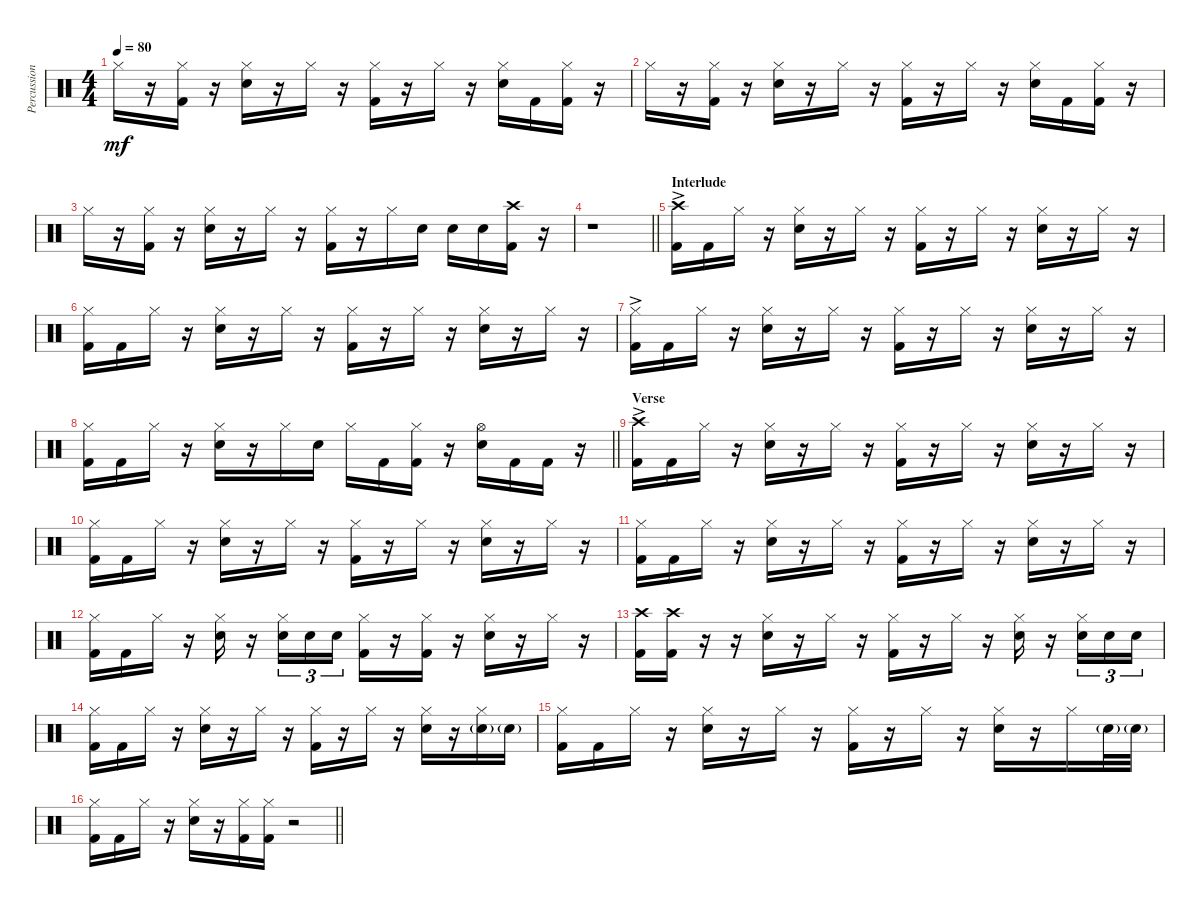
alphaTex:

\track ("Percussion" "Percussion") {instrument percussion}
\staff {score}
\articulation defaults
\ts (4 4)
\tempo 80
\clef neutral
\ks c "Hi-Hat (closed)".16{dy mf}
r.16 ("Hi-Hat (closed)" "Kick (hit) 2").16 r.16 ("Hi-Hat (closed)" "Snare (hit) 2").16 r.16 "Hi-Hat (closed)".16 r.16 ("Hi-Hat (closed)" "Kick (hit) 2").16 r.16 "Hi-Hat (closed)".16 r.16 ("Hi-Hat (closed)" "Snare (hit) 2").16 "Kick (hit) 2".16 ("Hi-Hat (closed)" "Kick (hit) 2").16 r.16 |
"Hi-Hat (closed)".16 r.16 ("Hi-Hat (closed)" "Kick (hit) 2").16 r.16 ("Hi-Hat (closed)" "Snare (hit) 2").16 r.16 "Hi-Hat (closed)".16 r.16 ("Hi-Hat (closed)" "Kick (hit) 2").16 r.16 "Hi-Hat (closed)".16 r.16 ("Hi-Hat (closed)" "Snare (hit) 2").16 "Kick (hit) 2".16 ("Hi-Hat (closed)" "Kick (hit) 2").16 r.16 |
"Hi-Hat (closed)".16 r.16 ("Hi-Hat (closed)" "Kick (hit) 2").16 r.16 ("Hi-Hat (closed)" "Snare (hit) 2").16 r.16 "Hi-Hat (closed)".16 r.16 ("Hi-Hat (closed)" "Kick (hit) 2").16 r.16 "Hi-Hat (closed)".16 "Snare (hit) 2".16 "Snare (hit) 2".16 "Snare (hit) 2".16 ("Crash high (hit)" "Kick (hit) 2").16 r.16 |
\barLineRight lightlight
r.1 |
\section ("" "Interlude")
("Crash high (hit)"{ac} "Kick (hit) 2").16 "Kick (hit) 2".16 "Hi-Hat (closed)".16 r.16 ("Hi-Hat (closed)" "Snare (hit) 2").16 r.16 "Hi-Hat (closed)".16 r.16 ("Hi-Hat (closed)" "Kick (hit) 2").16 r.16 "Hi-Hat (closed)".16 r.16 ("Hi-Hat (closed)" "Snare (hit) 2").16 r.16 "Hi-Hat (closed)".16 r.16 |
("Hi-Hat (closed)" "Kick (hit) 2").16 "Kick (hit) 2".16 "Hi-Hat (closed)".16 r.16 ("Hi-Hat (closed)" "Snare (hit) 2").16 r.16 "Hi-Hat (closed)".16 r.16 ("Hi-Hat (closed)" "Kick (hit) 2").16 r.16 "Hi-Hat (closed)".16 r.16 ("Hi-Hat (closed)" "Snare (hit) 2").16 r.16 "Hi-Hat (closed)".16 r.16 |
("Hi-Hat (closed)"{ac} "Kick (hit) 2").16 "Kick (hit) 2".16 "Hi-Hat (closed)".16 r.16 ("Hi-Hat (closed)" "Snare (hit) 2").16 r.16 "Hi-Hat (closed)".16 r.16 ("Hi-Hat (closed)" "Kick (hit) 2").16 r.16 "Hi-Hat (closed)".16 r.16 ("Hi-Hat (closed)" "Snare (hit) 2").16 r.16 "Hi-Hat (closed)".16 r.16 |
\barLineRight lightlight
("Hi-Hat (closed)" "Kick (hit) 2").16 "Kick (hit) 2".16 "Hi-Hat (closed)".16 r.16 ("Hi-Hat (closed)" "Snare (hit) 2").16 r.16 "Hi-Hat (closed)".16 "Snare (hit) 2".16 "Hi-Hat (closed)".16 "Kick (hit) 2".16 ("Hi-Hat (closed)" "Kick (hit) 2").16 r.16 ("Hi-Hat (open)" "Snare (hit) 2").16 "Kick (hit) 2".16 "Kick (hit) 2".16 r.16 |
\section ("" "Verse")
("Crash high (hit)"{ac} "Kick (hit) 2").16 "Kick (hit) 2".16 "Hi-Hat (closed)".16 r.16 ("Hi-Hat (closed)" "Snare (hit) 2").16 r.16 "Hi-Hat (closed)".16 r.16 ("Hi-Hat (closed)" "Kick (hit) 2").16 r.16 "Hi-Hat (closed)".16 r.16 ("Hi-Hat (closed)" "Snare (hit) 2").16 r.16 "Hi-Hat (closed)".16 r.16 |
("Hi-Hat (closed)" "Kick (hit) 2").16 "Kick (hit) 2".16 "Hi-Hat (closed)".16 r.16 ("Hi-Hat (closed)" "Snare (hit) 2").16 r.16 "Hi-Hat (closed)".16 r.16 ("Hi-Hat (closed)" "Kick (hit) 2").16 r.16 "Hi-Hat (closed)".16 r.16 ("Hi-Hat (closed)" "Snare (hit) 2").16 r.16 "Hi-Hat (closed)".16 r.16 |
("Hi-Hat (closed)" "Kick (hit) 2").16 "Kick (hit) 2".16 "Hi-Hat (closed)".16 r.16 ("Hi-Hat (closed)" "Snare (hit) 2").16 r.16 "Hi-Hat (closed)".16 r.16 ("Hi-Hat (closed)" "Kick (hit) 2").16 r.16 "Hi-Hat (closed)".16 r.16 ("Hi-Hat (closed)" "Snare (hit) 2").16 r.16 "Hi-Hat (closed)".16 r.16 |
("Hi-Hat (closed)" "Kick (hit) 2").16 "Kick (hit) 2".16 "Hi-Hat (closed)".16 r.16 ("Hi-Hat (closed)" "Snare (hit) 2").16 r.16 ("Hi-Hat (closed)" "Snare (hit) 2").16{tu (3 2)} "Snare (hit) 2".16{tu (3 2)} "Snare (hit) 2".16{tu (3 2)} ("Hi-Hat (closed)" "Kick (hit) 2").16 r.16 ("Hi-Hat (closed)" "Kick (hit) 2").16 r.16 ("Hi-Hat (closed)" "Snare (hit) 2").16 r.16 "Hi-Hat (closed)".16 r.16 |
("Crash high (hit)" "Kick (hit) 2").16 ("Crash high (hit)" "Kick (hit) 2").16 r.16 r.16 ("Hi-Hat (closed)" "Snare (hit) 2").16 r.16 "Hi-Hat (closed)".16 r.16 ("Hi-Hat (closed)" "Kick (hit) 2").16 r.16 "Hi-Hat (closed)".16 r.16 ("Hi-Hat (closed)" "Snare (hit) 2").16 r.16 ("Hi-Hat (closed)" "Snare (hit) 2").16{tu (3 2)} "Snare (hit) 2".16{tu (3 2)} "Snare (hit) 2".16{tu (3 2)} |
("Hi-Hat (closed)" "Kick (hit) 2").16 "Kick (hit) 2".16 "Hi-Hat (closed)".16 r.16 ("Hi-Hat (closed)" "Snare (hit) 2").16 r.16 "Hi-Hat (closed)".16 r.16 ("Hi-Hat (closed)" "Kick (hit) 2").16 r.16 "Hi-Hat (closed)".16 r.16 ("Hi-Hat (closed)" "Snare (hit) 2").16 r.16 ("Hi-Hat (closed)" "Snare (hit) 2"{g}).16 "Snare (hit) 2"{g}.16 |
("Hi-Hat (closed)" "Kick (hit) 2").16 "Kick (hit) 2".16 "Hi-Hat (closed)".16 r.16 ("Hi-Hat (closed)" "Snare (hit) 2").16 r.16 "Hi-Hat (closed)".16 r.16 ("Hi-Hat (closed)" "Kick (hit) 2").16 r.16 "Hi-Hat (closed)".16 r.16 ("Hi-Hat (closed)" "Snare (hit) 2").16 r.16 "Hi-Hat (closed)".16 "Snare (hit) 2"{g}.32 "Snare (hit) 2"{g}.32 |
\barLineRight lightlight
("Hi-Hat (closed)" "Kick (hit) 2").16 "Kick (hit) 2".16 "Hi-Hat (closed)".16 r.16 ("Hi-Hat (closed)" "Snare (hit) 2").16 r.16 ("Hi-Hat (closed)" "Kick (hit) 2").16 ("Hi-Hat (closed)" "Kick (hit) 2").16 r.2
